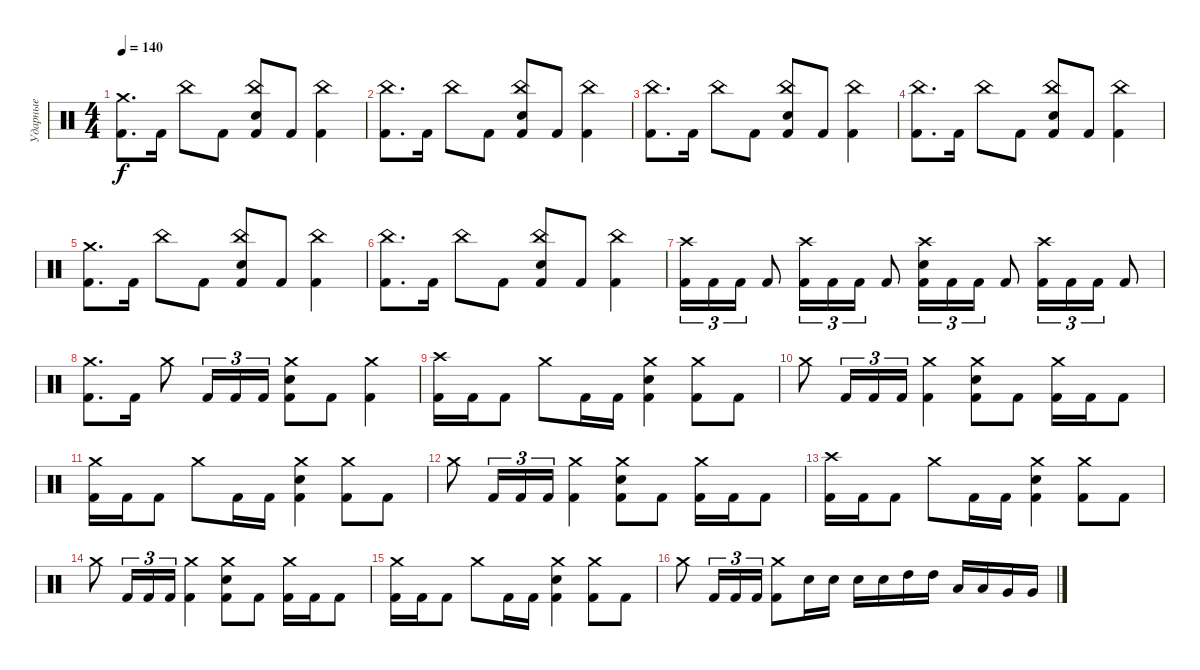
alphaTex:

\track ("Ударные" "Ударные") {instrument percussion}
\staff {score}
\articulation defaults
\ts (4 4)
\tempo 140
\clef neutral
\ks c
("Crash medium (hit)" "Kick (hit) 2").8{d dy f} "Kick (hit) 2".16 "China (hit)".8 "Kick (hit) 2".8 ("China (hit)" "Electric Snare (hit)" "Kick (hit) 2").8 "Kick (hit) 2".8 ("China (hit)" "Kick (hit) 2").4 |
("China (hit)" "Kick (hit) 2").8{d} "Kick (hit) 2".16 "China (hit)".8 "Kick (hit) 2".8 ("China (hit)" "Electric Snare (hit)" "Kick (hit) 2").8 "Kick (hit) 2".8 ("China (hit)" "Kick (hit) 2").4 |
("China (hit)" "Kick (hit) 2").8{d} "Kick (hit) 2".16 "China (hit)".8 "Kick (hit) 2".8 ("China (hit)" "Electric Snare (hit)" "Kick (hit) 2").8 "Kick (hit) 2".8 ("China (hit)" "Kick (hit) 2").4 |
("China (hit)" "Kick (hit) 2").8{d} "Kick (hit) 2".16 "China (hit)".8 "Kick (hit) 2".8 ("China (hit)" "Electric Snare (hit)" "Kick (hit) 2").8 "Kick (hit) 2".8 ("China (hit)" "Kick (hit) 2").4 |
("Crash medium (hit)" "Kick (hit) 2").8{d} "Kick (hit) 2".16 "China (hit)".8 "Kick (hit) 2".8 ("China (hit)" "Electric Snare (hit)" "Kick (hit) 2").8 "Kick (hit) 2".8 ("China (hit)" "Kick (hit) 2").4 |
("China (hit)" "Kick (hit) 2").8{d} "Kick (hit) 2".16 "China (hit)".8 "Kick (hit) 2".8 ("China (hit)" "Electric Snare (hit)" "Kick (hit) 2").8 "Kick (hit) 2".8 ("China (hit)" "Kick (hit) 2").4 |
("Crash high (hit)" "Kick (hit) 2").16{tu (3 2)} "Kick (hit) 2".16{tu (3 2)} "Kick (hit) 2".16{tu (3 2)} "Kick (hit) 2".8 ("Crash high (hit)" "Kick (hit) 2").16{tu (3 2)} "Kick (hit) 2".16{tu (3 2)} "Kick (hit) 2".16{tu (3 2)} "Kick (hit) 2".8 ("Crash high (hit)" "Electric Snare (hit)" "Kick (hit) 2").16{tu (3 2)} "Kick (hit) 2".16{tu (3 2)} "Kick (hit) 2".16{tu (3 2)} "Kick (hit) 2".8 ("Crash high (hit)" "Kick (hit) 2").16{tu (3 2)} "Kick (hit) 2".16{tu (3 2)} "Kick (hit) 2".16{tu (3 2)} "Kick (hit) 2".8 |
("Crash medium (hit)" "Kick (hit) 2").8{d} "Kick (hit) 2".16 "Crash medium (hit)".8 "Kick (hit) 2".16{tu (3 2)} "Kick (hit) 2".16{tu (3 2)} "Kick (hit) 2".16{tu (3 2)} ("Crash medium (hit)" "Electric Snare (hit)" "Kick (hit) 2").8 "Kick (hit) 2".8 ("Crash medium (hit)" "Kick (hit) 2").4 |
("Crash high (hit)" "Kick (hit) 2").16 "Kick (hit) 2".16 "Kick (hit) 2".8 "Crash medium (hit)".8 "Kick (hit) 2".16 "Kick (hit) 2".16 ("Crash medium (hit)" "Electric Snare (hit)" "Kick (hit) 2").4 ("Crash medium (hit)" "Kick (hit) 2").8 "Kick (hit) 2".8 |
"Crash medium (hit)".8 "Kick (hit) 2".16{tu (3 2)} "Kick (hit) 2".16{tu (3 2)} "Kick (hit) 2".16{tu (3 2)} ("Crash medium (hit)" "Kick (hit) 2").4 ("Crash medium (hit)" "Electric Snare (hit)" "Kick (hit) 2").8 "Kick (hit) 2".8 ("Crash medium (hit)" "Kick (hit) 2").16 "Kick (hit) 2".16 "Kick (hit) 2".8 |
("Crash medium (hit)" "Kick (hit) 2").16 "Kick (hit) 2".16 "Kick (hit) 2".8 "Crash medium (hit)".8 "Kick (hit) 2".16 "Kick (hit) 2".16 ("Crash medium (hit)" "Electric Snare (hit)" "Kick (hit) 2").4 ("Crash medium (hit)" "Kick (hit) 2").8 "Kick (hit) 2".8 |
"Crash medium (hit)".8 "Kick (hit) 2".16{tu (3 2)} "Kick (hit) 2".16{tu (3 2)} "Kick (hit) 2".16{tu (3 2)} ("Crash medium (hit)" "Kick (hit) 2").4 ("Crash medium (hit)" "Electric Snare (hit)" "Kick (hit) 2").8 "Kick (hit) 2".8 ("Crash medium (hit)" "Kick (hit) 2").16 "Kick (hit) 2".16 "Kick (hit) 2".8 |
("Crash high (hit)" "Kick (hit) 2").16 "Kick (hit) 2".16 "Kick (hit) 2".8 "Crash medium (hit)".8 "Kick (hit) 2".16 "Kick (hit) 2".16 ("Crash medium (hit)" "Electric Snare (hit)" "Kick (hit) 2").4 ("Crash medium (hit)" "Kick (hit) 2").8 "Kick (hit) 2".8 |
"Crash medium (hit)".8 "Kick (hit) 2".16{tu (3 2)} "Kick (hit) 2".16{tu (3 2)} "Kick (hit) 2".16{tu (3 2)} ("Crash medium (hit)" "Kick (hit) 2").4 ("Crash medium (hit)" "Electric Snare (hit)" "Kick (hit) 2").8 "Kick (hit) 2".8 ("Crash medium (hit)" "Kick (hit) 2").16 "Kick (hit) 2".16 "Kick (hit) 2".8 |
("Crash medium (hit)" "Kick (hit) 2").16 "Kick (hit) 2".16 "Kick (hit) 2".8 "Crash medium (hit)".8 "Kick (hit) 2".16 "Kick (hit) 2".16 ("Crash medium (hit)" "Electric Snare (hit)" "Kick (hit) 2").4 ("Crash medium (hit)" "Kick (hit) 2").8 "Kick (hit) 2".8 |
"Crash medium (hit)".8 "Kick (hit) 2".16{tu (3 2)} "Kick (hit) 2".16{tu (3 2)} "Kick (hit) 2".16{tu (3 2)} ("Crash medium (hit)" "Kick (hit) 2").8 "Electric Snare (hit)".16 "Electric Snare (hit)".16 "Electric Snare (hit)".16 "Electric Snare (hit)".16 "High Tom (hit)".16 "High Tom (hit)".16 "Low Tom (hit)".16 "Low Tom (hit)".16 "Very Low Tom (hit)".16 "Very Low Tom (hit)".16
